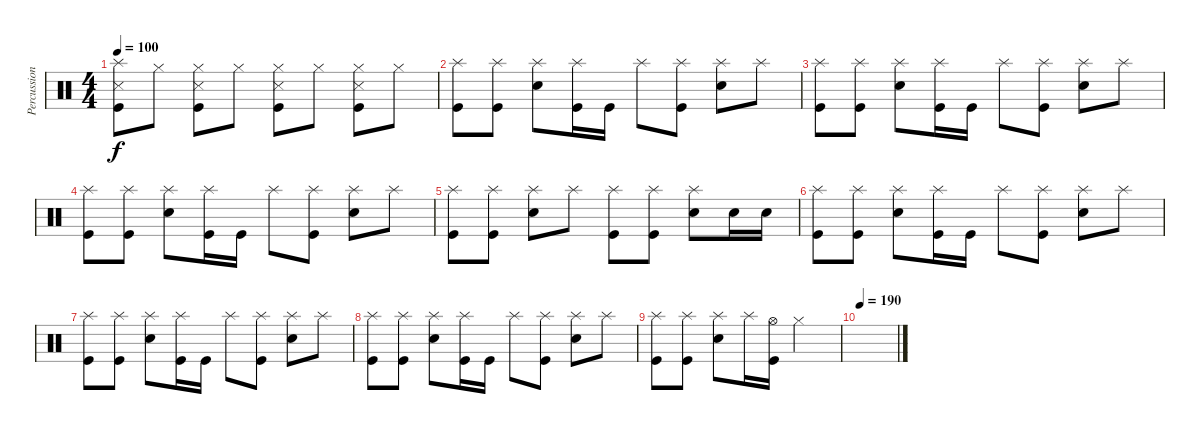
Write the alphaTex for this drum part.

\track ("Percussions" "Percussion") {instrument percussion}
\staff {score}
\articulation defaults
\ts (4 4)
\tempo 100
\clef neutral
\ks c
("Splash (hit)" "Snare (side stick) 3" "Kick (hit)").8{dy f} "Hi-Hat (closed)".8 ("Hi-Hat (closed)" "Snare (side stick) 3" "Kick (hit)").8 "Hi-Hat (closed)".8 ("Hi-Hat (closed)" "Snare (side stick) 3" "Kick (hit)").8 "Hi-Hat (closed)".8 ("Hi-Hat (closed)" "Snare (side stick) 3" "Kick (hit)").8 "Hi-Hat (closed)".8 |
("Splash (hit)" "Kick (hit)").8 ("Splash (hit)" "Kick (hit)").8 ("Splash (hit)" "Snare (hit) 2").8 ("Splash (hit)" "Kick (hit)").16 "Kick (hit)".16 "Splash (hit)".8 ("Splash (hit)" "Kick (hit)").8 ("Splash (hit)" "Snare (hit) 2").8 "Splash (hit)".8 |
("Splash (hit)" "Kick (hit)").8 ("Splash (hit)" "Kick (hit)").8 ("Splash (hit)" "Snare (hit) 2").8 ("Splash (hit)" "Kick (hit)").16 "Kick (hit)".16 "Splash (hit)".8 ("Splash (hit)" "Kick (hit)").8 ("Splash (hit)" "Snare (hit) 2").8 "Splash (hit)".8 |
("Splash (hit)" "Kick (hit)").8 ("Splash (hit)" "Kick (hit)").8 ("Splash (hit)" "Snare (hit) 2").8 ("Splash (hit)" "Kick (hit)").16 "Kick (hit)".16 "Splash (hit)".8 ("Splash (hit)" "Kick (hit)").8 ("Splash (hit)" "Snare (hit) 2").8 "Splash (hit)".8 |
("Splash (hit)" "Kick (hit)").8 ("Splash (hit)" "Kick (hit)").8 ("Splash (hit)" "Snare (hit) 2").8 "Splash (hit)".8 ("Splash (hit)" "Kick (hit)").8 ("Splash (hit)" "Kick (hit)").8 ("Splash (hit)" "Snare (hit) 2").8 "Snare (hit) 2".16 "Snare (hit) 2".16 |
("Splash (hit)" "Kick (hit)").8 ("Splash (hit)" "Kick (hit)").8 ("Splash (hit)" "Snare (hit) 2").8 ("Splash (hit)" "Kick (hit)").16 "Kick (hit)".16 "Splash (hit)".8 ("Splash (hit)" "Kick (hit)").8 ("Splash (hit)" "Snare (hit) 2").8 "Splash (hit)".8 |
("Splash (hit)" "Kick (hit)").8 ("Splash (hit)" "Kick (hit)").8 ("Splash (hit)" "Snare (hit) 2").8 ("Splash (hit)" "Kick (hit)").16 "Kick (hit)".16 "Splash (hit)".8 ("Splash (hit)" "Kick (hit)").8 ("Splash (hit)" "Snare (hit) 2").8 "Splash (hit)".8 |
("Splash (hit)" "Kick (hit)").8 ("Splash (hit)" "Kick (hit)").8 ("Splash (hit)" "Snare (hit) 2").8 ("Splash (hit)" "Kick (hit)").16 "Kick (hit)".16 "Splash (hit)".8 ("Splash (hit)" "Kick (hit)").8 ("Splash (hit)" "Snare (hit) 2").8 "Splash (hit)".8 |
("Splash (hit)" "Kick (hit)").8 ("Splash (hit)" "Kick (hit)").8 ("Splash (hit)" "Snare (hit) 2").8 "Splash (hit)".16 ("Hi-Hat (open)" "Kick (hit)").16 "Hi-Hat (closed)".2 |
\tempo 190
